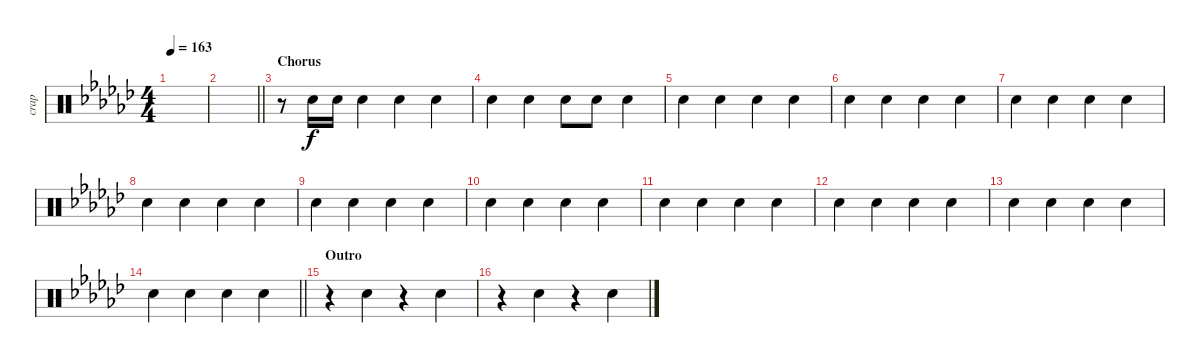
\track ("crap" "crap") {mute instrument percussion}
\staff {score}
\articulation defaults
\ts (4 4)
\tempo 163
\clef neutral
\ks gb
|
\barLineRight lightlight
|
\section ("" "Chorus")
r.8 "Hand Clap (hit)".16 "Hand Clap (hit)".16 "Hand Clap (hit)".4 "Hand Clap (hit)".4 "Hand Clap (hit)".4 |
"Hand Clap (hit)".4 "Hand Clap (hit)".4 "Hand Clap (hit)".8 "Hand Clap (hit)".8 "Hand Clap (hit)".4 |
"Hand Clap (hit)".4 "Hand Clap (hit)".4 "Hand Clap (hit)".4 "Hand Clap (hit)".4 |
"Hand Clap (hit)".4 "Hand Clap (hit)".4 "Hand Clap (hit)".4 "Hand Clap (hit)".4 |
"Hand Clap (hit)".4 "Hand Clap (hit)".4 "Hand Clap (hit)".4 "Hand Clap (hit)".4 |
"Hand Clap (hit)".4 "Hand Clap (hit)".4 "Hand Clap (hit)".4 "Hand Clap (hit)".4 |
"Hand Clap (hit)".4 "Hand Clap (hit)".4 "Hand Clap (hit)".4 "Hand Clap (hit)".4 |
"Hand Clap (hit)".4 "Hand Clap (hit)".4 "Hand Clap (hit)".4 "Hand Clap (hit)".4 |
"Hand Clap (hit)".4 "Hand Clap (hit)".4 "Hand Clap (hit)".4 "Hand Clap (hit)".4 |
"Hand Clap (hit)".4 "Hand Clap (hit)".4 "Hand Clap (hit)".4 "Hand Clap (hit)".4 |
"Hand Clap (hit)".4 "Hand Clap (hit)".4 "Hand Clap (hit)".4 "Hand Clap (hit)".4 |
\barLineRight lightlight "Hand Clap (hit)".4 "Hand Clap (hit)".4 "Hand Clap (hit)".4 "Hand Clap (hit)".4
|
\section ("" "Outro")
r.4 "Hand Clap (hit)".4 r.4 "Hand Clap (hit)".4 |
r.4 "Hand Clap (hit)".4 r.4 "Hand Clap (hit)".4
